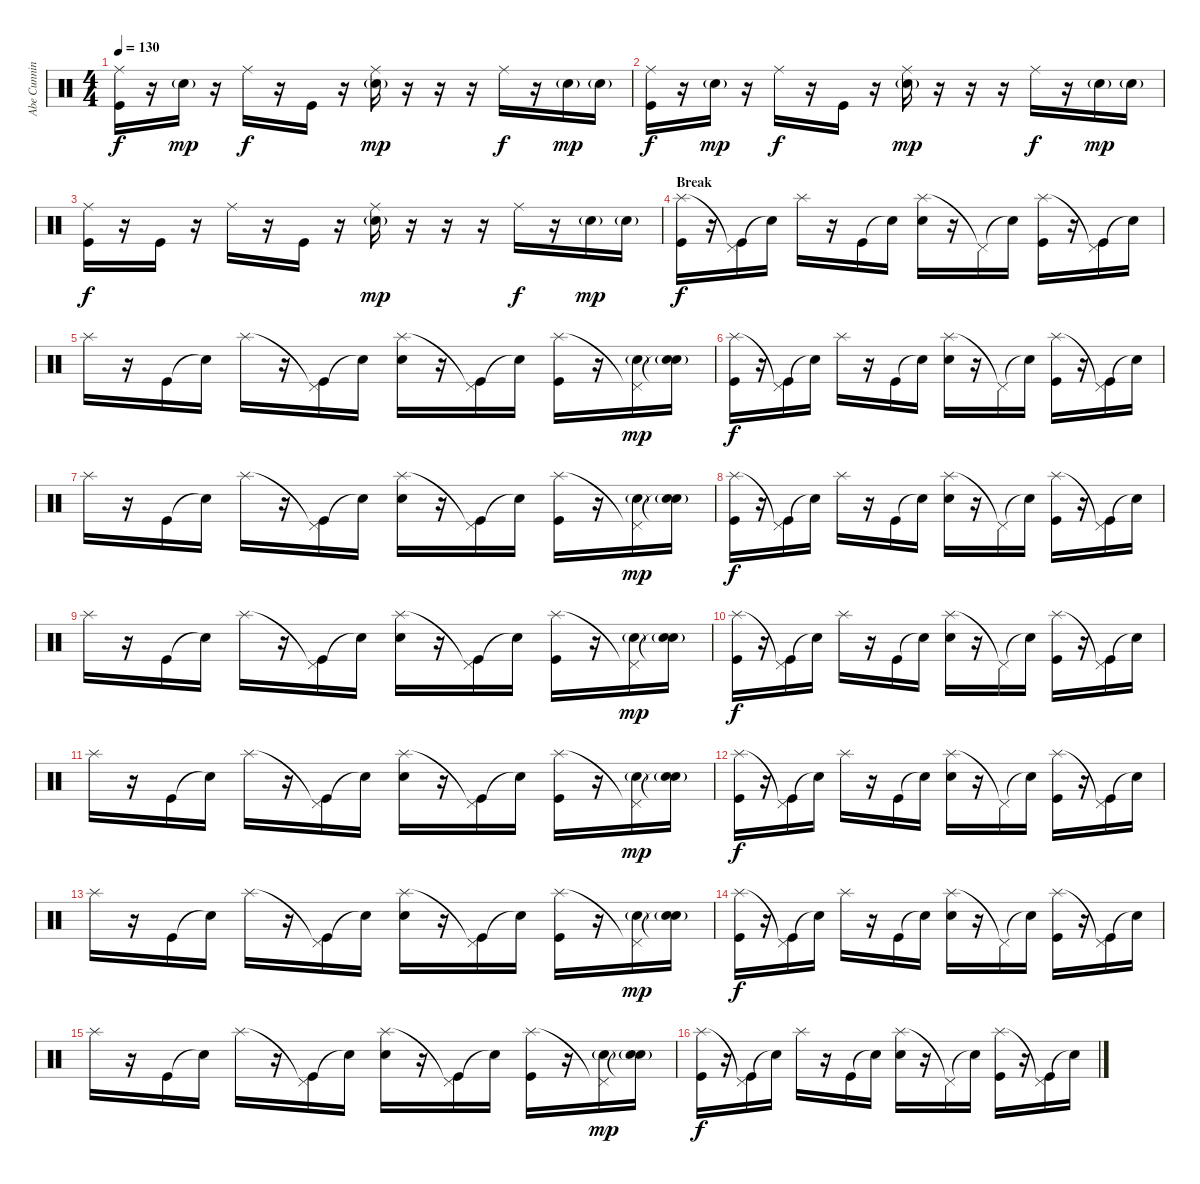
\track ("Abe Cunningham" "Abe Cunnin") {instrument percussion}
\staff {score}
\articulation defaults
\ts (4 4)
\tempo 130
\clef neutral
\ks c
("Ride (middle)" "Kick (hit)").16{dy f} r.16 "Electric Snare (hit)"{g}.16{dy mp} r.16 "Ride (middle)".16{dy f} r.16 "Kick (hit)".16 r.16 ("Ride (middle)" "Electric Snare (hit)"{g}).16{dy mp} r.16 r.16 r.16 "Ride (middle)".16{dy f} r.16 "Electric Snare (hit)"{g}.16{dy mp} "Electric Snare (hit)"{g}.16 |
("Ride (middle)" "Kick (hit)").16{dy f} r.16 "Electric Snare (hit)"{g}.16{dy mp} r.16 "Ride (middle)".16{dy f} r.16 "Kick (hit)".16 r.16 ("Ride (middle)" "Electric Snare (hit)"{g}).16{dy mp} r.16 r.16 r.16 "Ride (middle)".16{dy f} r.16 "Electric Snare (hit)"{g}.16{dy mp} "Electric Snare (hit)"{g}.16 |
("Ride (middle)" "Kick (hit)").16{dy f} r.16 "Kick (hit)".16 r.16 "Ride (middle)".16 r.16 "Kick (hit)".16 r.16 ("Ride (middle)" "Electric Snare (hit)"{g}).16{dy mp} r.16 r.16 r.16 "Ride (middle)".16{dy f} r.16 "Electric Snare (hit)"{g}.16{dy mp} "Electric Snare (hit)"{g}.16 |
\section ("" "Break")
("Splash (hit)" "Kick (hit)").16{dy f} r.16 ("Pedal Hi-Hat (hit)"{t} "Kick (hit)").16 "Snare (hit)"{t}.16 "Splash (hit)".16 r.16 "Kick (hit)".16 "Snare (hit)"{t}.16 ("Splash (hit)" "Electric Snare (hit)").16 r.16 "Pedal Hi-Hat (hit)"{t}.16 "Snare (hit)"{t}.16 ("Splash (hit)" "Kick (hit)").16 r.16 ("Pedal Hi-Hat (hit)"{t} "Kick (hit)").16 "Snare (hit)"{t}.16 |
"Splash (hit)".16 r.16 "Kick (hit)".16 "Snare (hit)"{t}.16 "Splash (hit)".16 r.16 ("Pedal Hi-Hat (hit)"{t} "Kick (hit)").16 "Snare (hit)"{t}.16 ("Splash (hit)" "Electric Snare (hit)").16 r.16 ("Pedal Hi-Hat (hit)"{t} "Kick (hit)").16 "Snare (hit)"{t}.16 ("Splash (hit)" "Kick (hit)").16 r.16 ("Pedal Hi-Hat (hit)"{t} "Electric Snare (hit)"{g}).16{dy mp} ("Snare (hit)"{t} "Electric Snare (hit)"{g}).16 |
("Splash (hit)" "Kick (hit)").16{dy f} r.16 ("Pedal Hi-Hat (hit)"{t} "Kick (hit)").16 "Snare (hit)"{t}.16 "Splash (hit)".16 r.16 "Kick (hit)".16 "Snare (hit)"{t}.16 ("Splash (hit)" "Electric Snare (hit)").16 r.16 "Pedal Hi-Hat (hit)"{t}.16 "Snare (hit)"{t}.16 ("Splash (hit)" "Kick (hit)").16 r.16 ("Pedal Hi-Hat (hit)"{t} "Kick (hit)").16 "Snare (hit)"{t}.16 |
"Splash (hit)".16 r.16 "Kick (hit)".16 "Snare (hit)"{t}.16 "Splash (hit)".16 r.16 ("Pedal Hi-Hat (hit)"{t} "Kick (hit)").16 "Snare (hit)"{t}.16 ("Splash (hit)" "Electric Snare (hit)").16 r.16 ("Pedal Hi-Hat (hit)"{t} "Kick (hit)").16 "Snare (hit)"{t}.16 ("Splash (hit)" "Kick (hit)").16 r.16 ("Pedal Hi-Hat (hit)"{t} "Electric Snare (hit)"{g}).16{dy mp} ("Snare (hit)"{t} "Electric Snare (hit)"{g}).16 |
("Splash (hit)" "Kick (hit)").16{dy f} r.16 ("Pedal Hi-Hat (hit)"{t} "Kick (hit)").16 "Snare (hit)"{t}.16 "Splash (hit)".16 r.16 "Kick (hit)".16 "Snare (hit)"{t}.16 ("Splash (hit)" "Electric Snare (hit)").16 r.16 "Pedal Hi-Hat (hit)"{t}.16 "Snare (hit)"{t}.16 ("Splash (hit)" "Kick (hit)").16 r.16 ("Pedal Hi-Hat (hit)"{t} "Kick (hit)").16 "Snare (hit)"{t}.16 |
"Splash (hit)".16 r.16 "Kick (hit)".16 "Snare (hit)"{t}.16 "Splash (hit)".16 r.16 ("Pedal Hi-Hat (hit)"{t} "Kick (hit)").16 "Snare (hit)"{t}.16 ("Splash (hit)" "Electric Snare (hit)").16 r.16 ("Pedal Hi-Hat (hit)"{t} "Kick (hit)").16 "Snare (hit)"{t}.16 ("Splash (hit)" "Kick (hit)").16 r.16 ("Pedal Hi-Hat (hit)"{t} "Electric Snare (hit)"{g}).16{dy mp} ("Snare (hit)"{t} "Electric Snare (hit)"{g}).16 |
("Splash (hit)" "Kick (hit)").16{dy f} r.16 ("Pedal Hi-Hat (hit)"{t} "Kick (hit)").16 "Snare (hit)"{t}.16 "Splash (hit)".16 r.16 "Kick (hit)".16 "Snare (hit)"{t}.16 ("Splash (hit)" "Electric Snare (hit)").16 r.16 "Pedal Hi-Hat (hit)"{t}.16 "Snare (hit)"{t}.16 ("Splash (hit)" "Kick (hit)").16 r.16 ("Pedal Hi-Hat (hit)"{t} "Kick (hit)").16 "Snare (hit)"{t}.16 |
"Splash (hit)".16 r.16 "Kick (hit)".16 "Snare (hit)"{t}.16 "Splash (hit)".16 r.16 ("Pedal Hi-Hat (hit)"{t} "Kick (hit)").16 "Snare (hit)"{t}.16 ("Splash (hit)" "Electric Snare (hit)").16 r.16 ("Pedal Hi-Hat (hit)"{t} "Kick (hit)").16 "Snare (hit)"{t}.16 ("Splash (hit)" "Kick (hit)").16 r.16 ("Pedal Hi-Hat (hit)"{t} "Electric Snare (hit)"{g}).16{dy mp} ("Snare (hit)"{t} "Electric Snare (hit)"{g}).16 |
("Splash (hit)" "Kick (hit)").16{dy f} r.16 ("Pedal Hi-Hat (hit)"{t} "Kick (hit)").16 "Snare (hit)"{t}.16 "Splash (hit)".16 r.16 "Kick (hit)".16 "Snare (hit)"{t}.16 ("Splash (hit)" "Electric Snare (hit)").16 r.16 "Pedal Hi-Hat (hit)"{t}.16 "Snare (hit)"{t}.16 ("Splash (hit)" "Kick (hit)").16 r.16 ("Pedal Hi-Hat (hit)"{t} "Kick (hit)").16 "Snare (hit)"{t}.16 |
"Splash (hit)".16 r.16 "Kick (hit)".16 "Snare (hit)"{t}.16 "Splash (hit)".16 r.16 ("Pedal Hi-Hat (hit)"{t} "Kick (hit)").16 "Snare (hit)"{t}.16 ("Splash (hit)" "Electric Snare (hit)").16 r.16 ("Pedal Hi-Hat (hit)"{t} "Kick (hit)").16 "Snare (hit)"{t}.16 ("Splash (hit)" "Kick (hit)").16 r.16 ("Pedal Hi-Hat (hit)"{t} "Electric Snare (hit)"{g}).16{dy mp} ("Snare (hit)"{t} "Electric Snare (hit)"{g}).16 |
("Splash (hit)" "Kick (hit)").16{dy f} r.16 ("Pedal Hi-Hat (hit)"{t} "Kick (hit)").16 "Snare (hit)"{t}.16 "Splash (hit)".16 r.16 "Kick (hit)".16 "Snare (hit)"{t}.16 ("Splash (hit)" "Electric Snare (hit)").16 r.16 "Pedal Hi-Hat (hit)"{t}.16 "Snare (hit)"{t}.16 ("Splash (hit)" "Kick (hit)").16 r.16 ("Pedal Hi-Hat (hit)"{t} "Kick (hit)").16 "Snare (hit)"{t}.16 |
"Splash (hit)".16 r.16 "Kick (hit)".16 "Snare (hit)"{t}.16 "Splash (hit)".16 r.16 ("Pedal Hi-Hat (hit)"{t} "Kick (hit)").16 "Snare (hit)"{t}.16 ("Splash (hit)" "Electric Snare (hit)").16 r.16 ("Pedal Hi-Hat (hit)"{t} "Kick (hit)").16 "Snare (hit)"{t}.16 ("Splash (hit)" "Kick (hit)").16 r.16 ("Pedal Hi-Hat (hit)"{t} "Electric Snare (hit)"{g}).16{dy mp} ("Snare (hit)"{t} "Electric Snare (hit)"{g}).16 |
("Splash (hit)" "Kick (hit)").16{dy f} r.16 ("Pedal Hi-Hat (hit)"{t} "Kick (hit)").16 "Snare (hit)"{t}.16 "Splash (hit)".16 r.16 "Kick (hit)".16 "Snare (hit)"{t}.16 ("Splash (hit)" "Electric Snare (hit)").16 r.16 "Pedal Hi-Hat (hit)"{t}.16 "Snare (hit)"{t}.16 ("Splash (hit)" "Kick (hit)").16 r.16 ("Pedal Hi-Hat (hit)"{t} "Kick (hit)").16 "Snare (hit)"{t}.16
